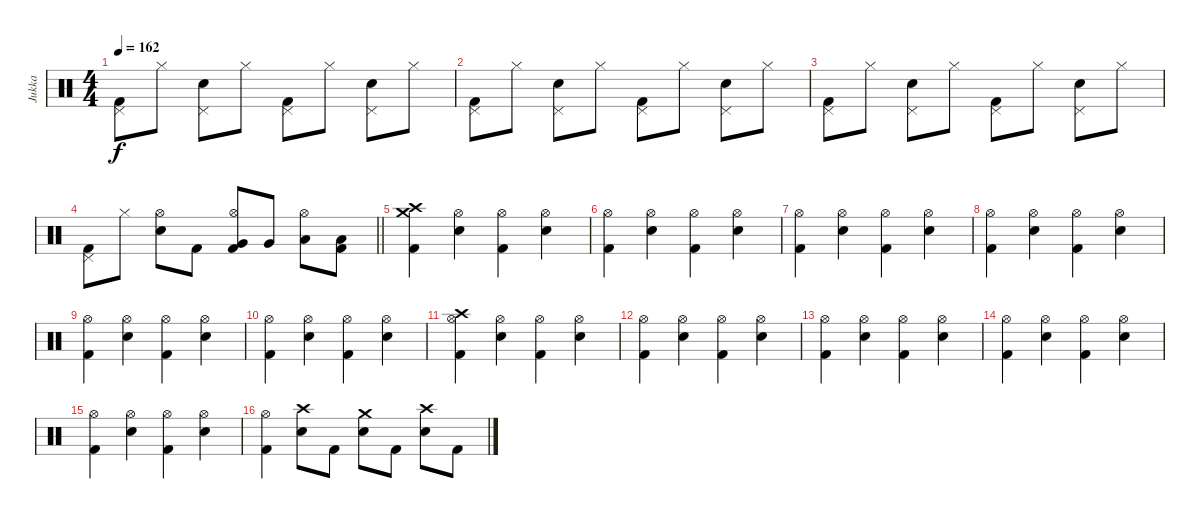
\track ("Jukka" "Jukka") {instrument percussion}
\staff {score}
\articulation defaults
\ts (4 4)
\tempo 162
\clef neutral
\ks c
("Pedal Hi-Hat (hit)" "Kick (hit) 2").8{dy f} "Hi-Hat (closed)".8 ("Pedal Hi-Hat (hit)" "Electric Snare (hit)").8 "Hi-Hat (closed)".8 ("Pedal Hi-Hat (hit)" "Kick (hit) 2").8 "Hi-Hat (closed)".8 ("Pedal Hi-Hat (hit)" "Electric Snare (hit)").8 "Hi-Hat (closed)".8 |
("Pedal Hi-Hat (hit)" "Kick (hit) 2").8 "Hi-Hat (closed)".8 ("Pedal Hi-Hat (hit)" "Electric Snare (hit)").8 "Hi-Hat (closed)".8 ("Pedal Hi-Hat (hit)" "Kick (hit) 2").8 "Hi-Hat (closed)".8 ("Pedal Hi-Hat (hit)" "Electric Snare (hit)").8 "Hi-Hat (closed)".8 |
("Pedal Hi-Hat (hit)" "Kick (hit) 2").8 "Hi-Hat (closed)".8 ("Pedal Hi-Hat (hit)" "Electric Snare (hit)").8 "Hi-Hat (closed)".8 ("Pedal Hi-Hat (hit)" "Kick (hit) 2").8 "Hi-Hat (closed)".8 ("Pedal Hi-Hat (hit)" "Electric Snare (hit)").8 "Hi-Hat (closed)".8 |
\barLineRight lightlight
("Pedal Hi-Hat (hit)" "Kick (hit) 2").8 "Hi-Hat (closed)".8 ("Hi-Hat (open)" "Electric Snare (hit)").8 "Kick (hit) 2".8 ("Hi-Hat (open)" "Very Low Tom (hit)" "Kick (hit) 2").8 "Very Low Tom (hit)".8 ("Hi-Hat (open)" "Low Floor Tom (hit)").8 ("Low Floor Tom (hit)" "Kick (hit) 2").8 |
("Crash medium (hit)" "Crash high (hit)" "Kick (hit) 2").4 ("Hi-Hat (open)" "Electric Snare (hit)").4 ("Hi-Hat (open)" "Kick (hit) 2").4 ("Hi-Hat (open)" "Electric Snare (hit)").4 |
("Hi-Hat (open)" "Kick (hit) 2").4 ("Hi-Hat (open)" "Electric Snare (hit)").4 ("Hi-Hat (open)" "Kick (hit) 2").4 ("Hi-Hat (open)" "Electric Snare (hit)").4 |
("Hi-Hat (open)" "Kick (hit) 2").4 ("Hi-Hat (open)" "Electric Snare (hit)").4 ("Hi-Hat (open)" "Kick (hit) 2").4 ("Hi-Hat (open)" "Electric Snare (hit)").4 |
("Hi-Hat (open)" "Kick (hit) 2").4 ("Hi-Hat (open)" "Electric Snare (hit)").4 ("Hi-Hat (open)" "Kick (hit) 2").4 ("Hi-Hat (open)" "Electric Snare (hit)").4 |
("Hi-Hat (open)" "Kick (hit) 2").4 ("Hi-Hat (open)" "Electric Snare (hit)").4 ("Hi-Hat (open)" "Kick (hit) 2").4 ("Hi-Hat (open)" "Electric Snare (hit)").4 |
("Hi-Hat (open)" "Kick (hit) 2").4 ("Hi-Hat (open)" "Electric Snare (hit)").4 ("Hi-Hat (open)" "Kick (hit) 2").4 ("Hi-Hat (open)" "Electric Snare (hit)").4 |
("Crash high (hit)" "Hi-Hat (open)" "Kick (hit) 2").4 ("Hi-Hat (open)" "Electric Snare (hit)").4 ("Hi-Hat (open)" "Kick (hit) 2").4 ("Hi-Hat (open)" "Electric Snare (hit)").4 |
("Hi-Hat (open)" "Kick (hit) 2").4 ("Hi-Hat (open)" "Electric Snare (hit)").4 ("Hi-Hat (open)" "Kick (hit) 2").4 ("Hi-Hat (open)" "Electric Snare (hit)").4 |
("Hi-Hat (open)" "Kick (hit) 2").4 ("Hi-Hat (open)" "Electric Snare (hit)").4 ("Hi-Hat (open)" "Kick (hit) 2").4 ("Hi-Hat (open)" "Electric Snare (hit)").4 |
("Hi-Hat (open)" "Kick (hit) 2").4 ("Hi-Hat (open)" "Electric Snare (hit)").4 ("Hi-Hat (open)" "Kick (hit) 2").4 ("Hi-Hat (open)" "Electric Snare (hit)").4 |
("Hi-Hat (open)" "Kick (hit) 2").4 ("Hi-Hat (open)" "Electric Snare (hit)").4 ("Hi-Hat (open)" "Kick (hit) 2").4 ("Hi-Hat (open)" "Electric Snare (hit)").4 |
("Hi-Hat (open)" "Kick (hit) 2").4 ("Crash high (hit)" "Electric Snare (hit)").8 "Kick (hit) 2".8 ("Crash medium (hit)" "Electric Snare (hit)").8 "Kick (hit) 2".8 ("Crash high (hit)" "Electric Snare (hit)").8 "Kick (hit) 2".8
